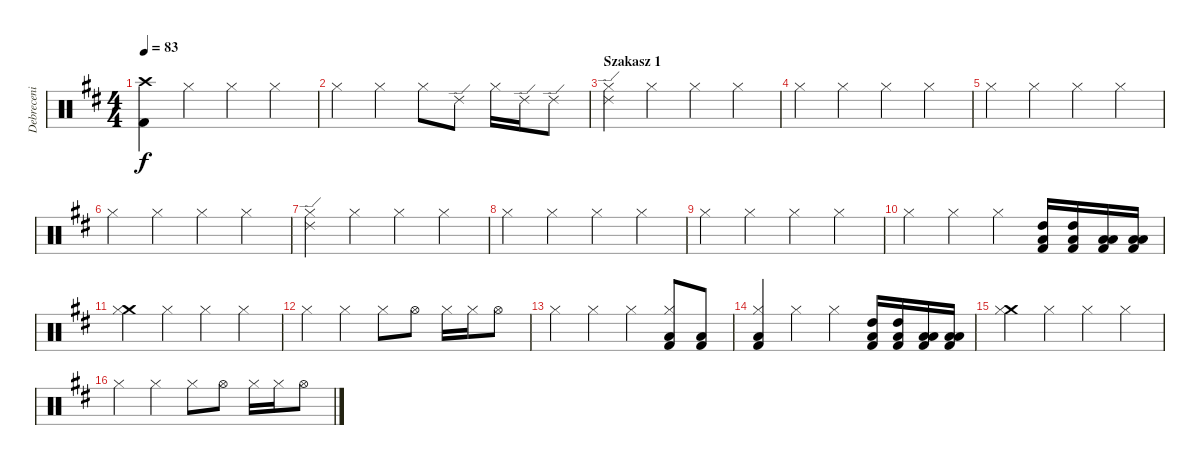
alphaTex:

\track ("Debreceni Ferenc \"Ciki\" Dob" "Debreceni ") {instrument percussion}
\staff {score}
\articulation defaults
\ts (4 4)
\tempo 83
\clef neutral
\ks d
("Crash high (hit)" "Kick (hit) 2").4{dy f} "Hi-Hat (closed)".4 "Hi-Hat (closed)".4 "Hi-Hat (closed)".4 |
"Hi-Hat (closed)".4 "Hi-Hat (closed)".4 "Hi-Hat (closed)".8 "Ride (edge) 2".8 "Hi-Hat (closed)".16 "Ride (edge) 2".16 "Ride (edge) 2".8 |
\section ("" "Szakasz 1")
("Ride (edge) 2" "Hi-Hat (closed)").4 "Hi-Hat (closed)".4 "Hi-Hat (closed)".4 "Hi-Hat (closed)".4 |
"Hi-Hat (closed)".4 "Hi-Hat (closed)".4 "Hi-Hat (closed)".4 "Hi-Hat (closed)".4 |
"Hi-Hat (closed)".4 "Hi-Hat (closed)".4 "Hi-Hat (closed)".4 "Hi-Hat (closed)".4 |
"Hi-Hat (closed)".4 "Hi-Hat (closed)".4 "Hi-Hat (closed)".4 "Hi-Hat (closed)".4 |
("Ride (edge) 2" "Hi-Hat (closed)").4 "Hi-Hat (closed)".4 "Hi-Hat (closed)".4 "Hi-Hat (closed)".4 |
"Hi-Hat (closed)".4 "Hi-Hat (closed)".4 "Hi-Hat (closed)".4 "Hi-Hat (closed)".4 |
"Hi-Hat (closed)".4 "Hi-Hat (closed)".4 "Hi-Hat (closed)".4 "Hi-Hat (closed)".4 |
"Hi-Hat (closed)".4 "Hi-Hat (closed)".4 "Hi-Hat (closed)".4 ("High Tom (hit)" "Low Floor Tom (hit)" "Kick (hit) 2").16 ("High Tom (hit)" "Low Floor Tom (hit)" "Kick (hit) 2").16 ("Low Tom (hit)" "Low Floor Tom (hit)" "Kick (hit) 2").16 ("Low Tom (hit)" "Low Floor Tom (hit)" "Kick (hit) 2").16 |
("Crash medium (hit)" "Hi-Hat (closed)").4 "Hi-Hat (closed)".4 "Hi-Hat (closed)".4 "Hi-Hat (closed)".4 |
"Hi-Hat (closed)".4 "Hi-Hat (closed)".4 "Hi-Hat (closed)".8 "Hi-Hat (open)".8 "Hi-Hat (closed)".16 "Hi-Hat (closed)".16 "Hi-Hat (open)".8 |
"Hi-Hat (closed)".4 "Hi-Hat (closed)".4 "Hi-Hat (closed)".4 ("Hi-Hat (closed)" "Low Tom (hit)" "Kick (hit) 2").8 ("Low Tom (hit)" "Kick (hit) 2").8 |
("Hi-Hat (closed)" "Low Tom (hit)" "Kick (hit) 2").4 "Hi-Hat (closed)".4 "Hi-Hat (closed)".4 ("High Tom (hit)" "Low Floor Tom (hit)" "Kick (hit) 2").16 ("High Tom (hit)" "Low Floor Tom (hit)" "Kick (hit) 2").16 ("Low Tom (hit)" "Low Floor Tom (hit)" "Kick (hit) 2").16 ("Low Tom (hit)" "Low Floor Tom (hit)" "Kick (hit) 2").16 |
("Crash medium (hit)" "Hi-Hat (closed)").4 "Hi-Hat (closed)".4 "Hi-Hat (closed)".4 "Hi-Hat (closed)".4 |
"Hi-Hat (closed)".4 "Hi-Hat (closed)".4 "Hi-Hat (closed)".8 "Hi-Hat (open)".8 "Hi-Hat (closed)".16 "Hi-Hat (closed)".16 "Hi-Hat (open)".8
